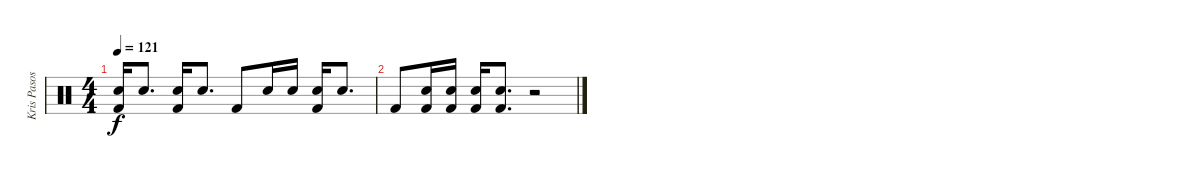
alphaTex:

\track ("Kris Pasos" "Kris Pasos") {instrument percussion}
\staff {score}
\articulation defaults
\ts (4 4)
\tempo 121
\clef neutral
\ks c
("Snare (hit) 2" "Kick (hit) 2").16{dy f} "Snare (hit) 2".8{d} ("Snare (hit) 2" "Kick (hit) 2").16 "Snare (hit) 2".8{d} "Kick (hit) 2".8 "Snare (hit) 2".16 "Snare (hit) 2".16 ("Snare (hit) 2" "Kick (hit) 2").16 "Snare (hit) 2".8{d} |
"Kick (hit) 2".8 ("Snare (hit) 2" "Kick (hit) 2").16 ("Snare (hit) 2" "Kick (hit) 2").16 ("Snare (hit) 2" "Kick (hit) 2").16 ("Snare (hit) 2" "Kick (hit) 2").8{d} r.2
